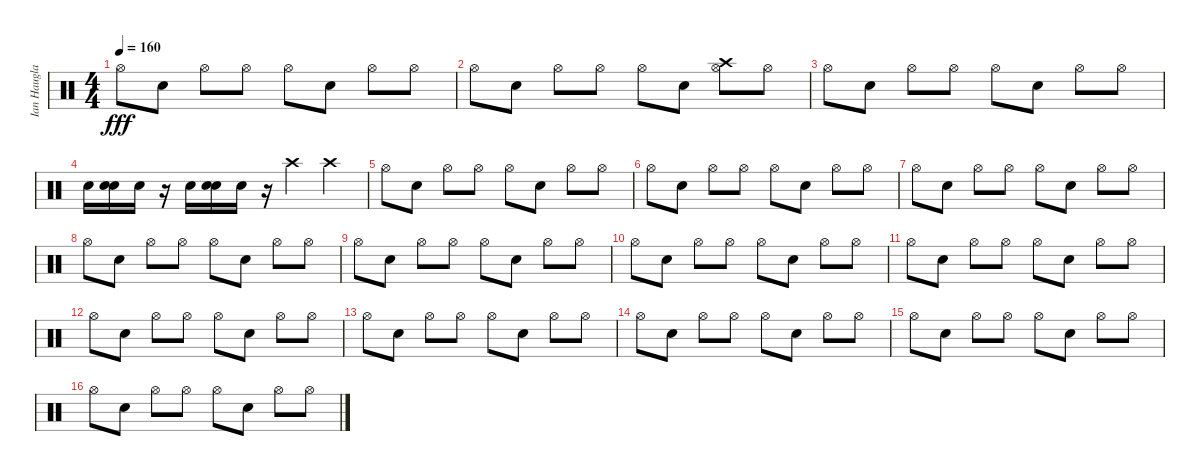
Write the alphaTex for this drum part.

\track ("Ian Haugland" "Ian Haugla") {instrument percussion}
\staff {score}
\articulation defaults
\ts (4 4)
\tempo 160
\clef neutral
\ks c "Hi-Hat (open)".8{dy fff} "Electric Snare (hit)".8 "Hi-Hat (open)".8 "Hi-Hat (open)".8 "Hi-Hat (open)".8 "Snare (hit) 2".8 "Hi-Hat (open)".8 "Hi-Hat (open)".8
|
"Hi-Hat (open)".8 "Electric Snare (hit)".8 "Hi-Hat (open)".8 "Hi-Hat (open)".8 "Hi-Hat (open)".8 "Electric Snare (hit)".8 ("Hi-Hat (open)" "Crash high (hit)").8 "Hi-Hat (open)".8 |
"Hi-Hat (open)".8 "Electric Snare (hit)".8 "Hi-Hat (open)".8 "Hi-Hat (open)".8 "Hi-Hat (open)".8 "Snare (hit) 2".8 "Hi-Hat (open)".8 "Hi-Hat (open)".8 |
"Snare (hit) 2".16 ("Electric Snare (hit)" "Snare (hit) 2").16 "Snare (hit) 2".16 r.16 "Snare (hit) 2".16 ("Electric Snare (hit)" "Snare (hit) 2").16 "Snare (hit) 2".16 r.16 "Crash high (hit)".4 "Crash high (hit)".4 |
"Hi-Hat (open)".8 "Electric Snare (hit)".8 "Hi-Hat (open)".8 "Hi-Hat (open)".8 "Hi-Hat (open)".8 "Snare (hit) 2".8 "Hi-Hat (open)".8 "Hi-Hat (open)".8 |
"Hi-Hat (open)".8 "Electric Snare (hit)".8 "Hi-Hat (open)".8 "Hi-Hat (open)".8 "Hi-Hat (open)".8 "Electric Snare (hit)".8 "Hi-Hat (open)".8 "Hi-Hat (open)".8 |
"Hi-Hat (open)".8 "Electric Snare (hit)".8 "Hi-Hat (open)".8 "Hi-Hat (open)".8 "Hi-Hat (open)".8 "Snare (hit) 2".8 "Hi-Hat (open)".8 "Hi-Hat (open)".8 |
"Hi-Hat (open)".8 "Electric Snare (hit)".8 "Hi-Hat (open)".8 "Hi-Hat (open)".8 "Hi-Hat (open)".8 "Electric Snare (hit)".8 "Hi-Hat (open)".8 "Hi-Hat (open)".8 |
"Hi-Hat (open)".8 "Electric Snare (hit)".8 "Hi-Hat (open)".8 "Hi-Hat (open)".8 "Hi-Hat (open)".8 "Snare (hit) 2".8 "Hi-Hat (open)".8 "Hi-Hat (open)".8 |
"Hi-Hat (open)".8 "Electric Snare (hit)".8 "Hi-Hat (open)".8 "Hi-Hat (open)".8 "Hi-Hat (open)".8 "Electric Snare (hit)".8 "Hi-Hat (open)".8 "Hi-Hat (open)".8 |
"Hi-Hat (open)".8 "Electric Snare (hit)".8 "Hi-Hat (open)".8 "Hi-Hat (open)".8 "Hi-Hat (open)".8 "Snare (hit) 2".8 "Hi-Hat (open)".8 "Hi-Hat (open)".8 |
"Hi-Hat (open)".8 "Electric Snare (hit)".8 "Hi-Hat (open)".8 "Hi-Hat (open)".8 "Hi-Hat (open)".8 "Electric Snare (hit)".8 "Hi-Hat (open)".8 "Hi-Hat (open)".8 |
"Hi-Hat (open)".8 "Electric Snare (hit)".8 "Hi-Hat (open)".8 "Hi-Hat (open)".8 "Hi-Hat (open)".8 "Snare (hit) 2".8 "Hi-Hat (open)".8 "Hi-Hat (open)".8 |
"Hi-Hat (open)".8 "Electric Snare (hit)".8 "Hi-Hat (open)".8 "Hi-Hat (open)".8 "Hi-Hat (open)".8 "Electric Snare (hit)".8 "Hi-Hat (open)".8 "Hi-Hat (open)".8 |
"Hi-Hat (open)".8 "Electric Snare (hit)".8 "Hi-Hat (open)".8 "Hi-Hat (open)".8 "Hi-Hat (open)".8 "Snare (hit) 2".8 "Hi-Hat (open)".8 "Hi-Hat (open)".8 |
"Hi-Hat (open)".8 "Electric Snare (hit)".8 "Hi-Hat (open)".8 "Hi-Hat (open)".8 "Hi-Hat (open)".8 "Electric Snare (hit)".8 "Hi-Hat (open)".8 "Hi-Hat (open)".8
